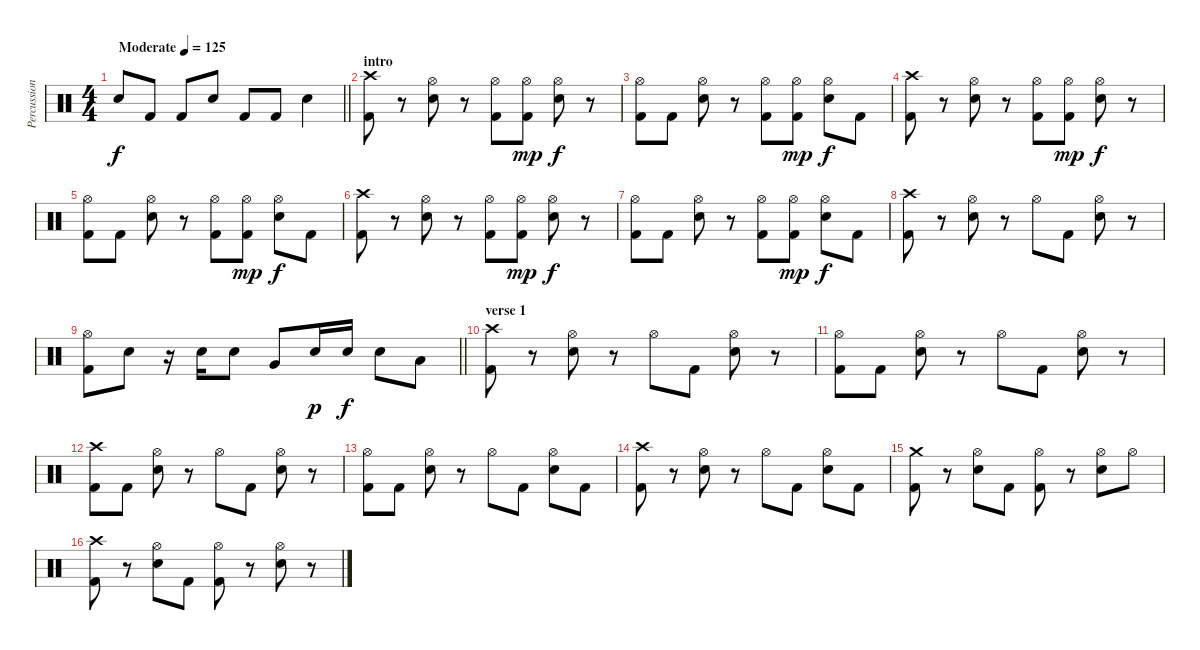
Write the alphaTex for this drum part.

\track ("Percussion" "Percussion") {instrument percussion}
\staff {score}
\articulation defaults
\ts (4 4)
\tempo (125 "Moderate")
\clef neutral
\barLineRight lightlight
\ks c "Snare (hit) 2".8{dy f} "Kick (hit) 2".8 "Kick (hit) 2".8 "Snare (hit) 2".8 "Kick (hit) 2".8 "Kick (hit) 2".8 "Snare (hit) 2".4
|
\section ("" "intro")
("Crash high (hit)" "Kick (hit) 2").8 r.8 ("Hi-Hat (open)" "Snare (hit) 2").8 r.8 ("Hi-Hat (open)" "Kick (hit) 2").8 ("Hi-Hat (open)" "Kick (hit) 2").8{dy mp} ("Hi-Hat (open)" "Snare (hit) 2").8{dy f} r.8 |
("Hi-Hat (open)" "Kick (hit) 2").8 "Kick (hit) 2".8 ("Hi-Hat (open)" "Snare (hit) 2").8 r.8 ("Hi-Hat (open)" "Kick (hit) 2").8 ("Hi-Hat (open)" "Kick (hit) 2").8{dy mp} ("Hi-Hat (open)" "Snare (hit) 2").8{dy f} "Kick (hit) 2".8 |
("Crash high (hit)" "Kick (hit) 2").8 r.8 ("Hi-Hat (open)" "Snare (hit) 2").8 r.8 ("Hi-Hat (open)" "Kick (hit) 2").8 ("Hi-Hat (open)" "Kick (hit) 2").8{dy mp} ("Hi-Hat (open)" "Snare (hit) 2").8{dy f} r.8 |
("Hi-Hat (open)" "Kick (hit) 2").8 "Kick (hit) 2".8 ("Hi-Hat (open)" "Snare (hit) 2").8 r.8 ("Hi-Hat (open)" "Kick (hit) 2").8 ("Hi-Hat (open)" "Kick (hit) 2").8{dy mp} ("Hi-Hat (open)" "Snare (hit) 2").8{dy f} "Kick (hit) 2".8 |
("Crash high (hit)" "Kick (hit) 2").8 r.8 ("Hi-Hat (open)" "Snare (hit) 2").8 r.8 ("Hi-Hat (open)" "Kick (hit) 2").8 ("Hi-Hat (open)" "Kick (hit) 2").8{dy mp} ("Hi-Hat (open)" "Snare (hit) 2").8{dy f} r.8 |
("Hi-Hat (open)" "Kick (hit) 2").8 "Kick (hit) 2".8 ("Hi-Hat (open)" "Snare (hit) 2").8 r.8 ("Hi-Hat (open)" "Kick (hit) 2").8 ("Hi-Hat (open)" "Kick (hit) 2").8{dy mp} ("Hi-Hat (open)" "Snare (hit) 2").8{dy f} "Kick (hit) 2".8 |
("Crash high (hit)" "Kick (hit) 2").8 r.8 ("Hi-Hat (open)" "Snare (hit) 2").8 r.8 "Hi-Hat (open)".8 "Kick (hit) 2".8 ("Hi-Hat (open)" "Snare (hit) 2").8 r.8 |
\barLineRight lightlight
("Hi-Hat (open)" "Kick (hit) 2").8 "Snare (hit) 2".8 r.16 "Snare (hit) 2".16 "Snare (hit) 2".8 "Very Low Tom (hit)".8 "Snare (hit) 2".16{dy p} "Snare (hit) 2".16{dy f} "Snare (hit) 2".8 "Low Tom (hit)".8 |
\section ("" "verse 1")
("Crash high (hit)" "Kick (hit) 2").8 r.8 ("Hi-Hat (open)" "Snare (hit) 2").8 r.8 "Hi-Hat (open)".8 "Kick (hit) 2".8 ("Hi-Hat (open)" "Snare (hit) 2").8 r.8 |
("Hi-Hat (open)" "Kick (hit) 2").8 "Kick (hit) 2".8 ("Hi-Hat (open)" "Snare (hit) 2").8 r.8 "Hi-Hat (open)".8 "Kick (hit) 2".8 ("Hi-Hat (open)" "Snare (hit) 2").8 r.8 |
("Crash high (hit)" "Kick (hit) 2").8 "Kick (hit) 2".8 ("Hi-Hat (open)" "Snare (hit) 2").8 r.8 "Hi-Hat (open)".8 "Kick (hit) 2".8 ("Hi-Hat (open)" "Snare (hit) 2").8 r.8 |
("Hi-Hat (open)" "Kick (hit) 2").8 "Kick (hit) 2".8 ("Hi-Hat (open)" "Snare (hit) 2").8 r.8 "Hi-Hat (open)".8 "Kick (hit) 2".8 ("Hi-Hat (open)" "Snare (hit) 2").8 "Kick (hit) 2".8 |
("Crash high (hit)" "Kick (hit) 2").8 r.8 ("Hi-Hat (open)" "Snare (hit) 2").8 r.8 "Hi-Hat (open)".8 "Kick (hit) 2".8 ("Hi-Hat (open)" "Snare (hit) 2").8 "Kick (hit) 2".8 |
("Crash medium (hit)" "Kick (hit) 2").8 r.8 ("Hi-Hat (open)" "Snare (hit) 2").8 "Kick (hit) 2".8 ("Hi-Hat (open)" "Kick (hit) 2").8 r.8 ("Hi-Hat (open)" "Snare (hit) 2").8 "Hi-Hat (open)".8 |
("Crash high (hit)" "Kick (hit) 2").8 r.8 ("Hi-Hat (open)" "Snare (hit) 2").8 "Kick (hit) 2".8 ("Hi-Hat (open)" "Kick (hit) 2").8 r.8 ("Hi-Hat (open)" "Snare (hit) 2").8 r.8
